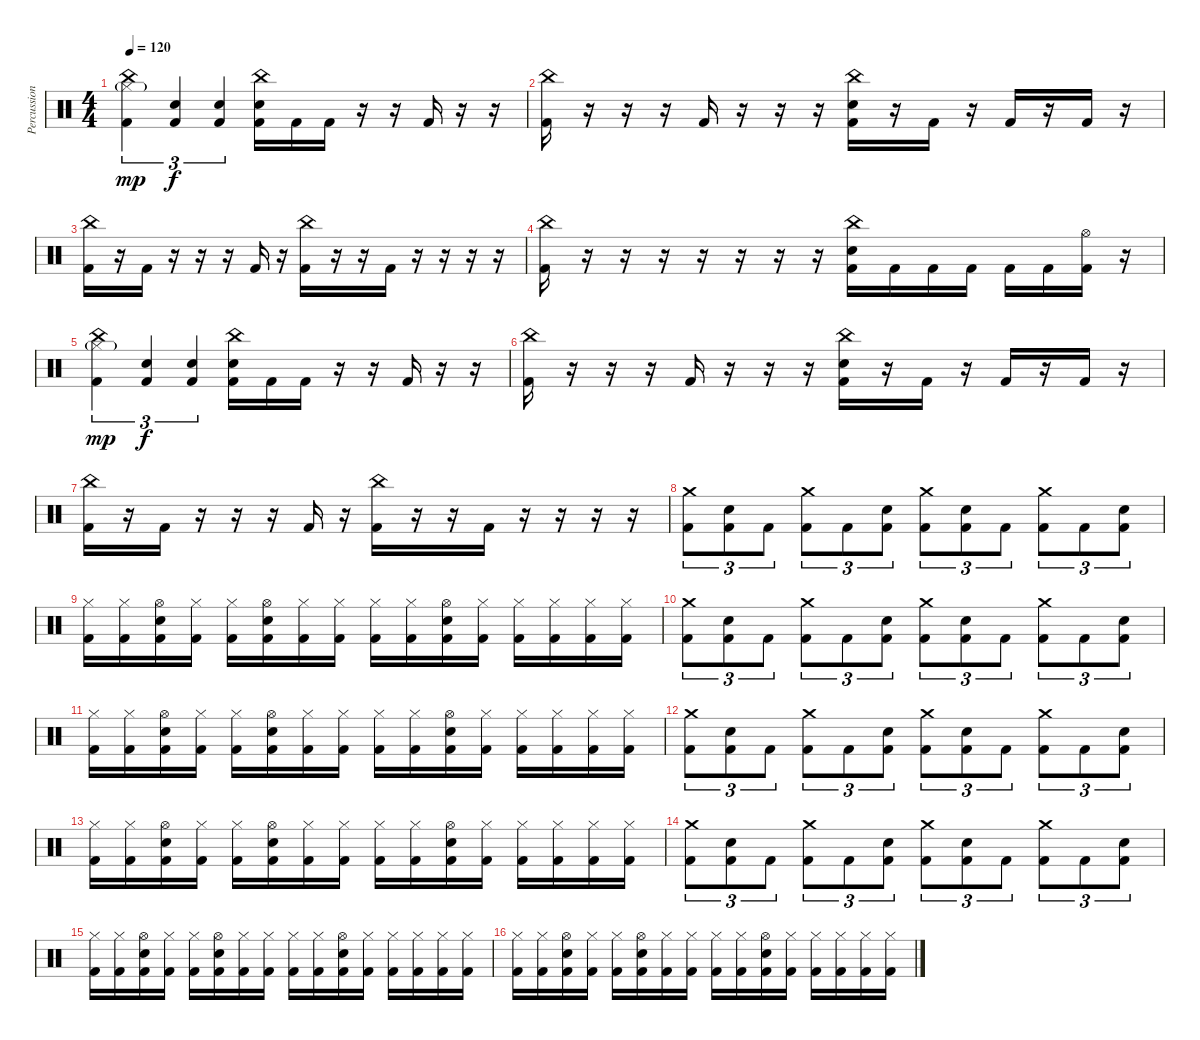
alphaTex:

\track ("Percussion" "Percussion") {instrument percussion}
\staff {score}
\articulation defaults
\ts (4 4)
\tempo 120
\clef neutral
\ks c
("China (hit)" "Hi-Hat (closed)"{g} "Kick (hit) 2").4{tu (3 2) dy mp} ("Electric Snare (hit)" "Kick (hit) 2").4{tu (3 2) dy f} ("Electric Snare (hit)" "Kick (hit) 2").4{tu (3 2)} ("China (hit)" "Electric Snare (hit)" "Kick (hit) 2").16 "Kick (hit) 2".16 "Kick (hit) 2".16 r.16 r.16 "Kick (hit) 2".16 r.16 r.16 |
("China (hit)" "Kick (hit) 2").16 r.16 r.16 r.16 "Kick (hit) 2".16 r.16 r.16 r.16 ("China (hit)" "Electric Snare (hit)" "Kick (hit) 2").16 r.16 "Kick (hit) 2".16 r.16 "Kick (hit) 2".16 r.16 "Kick (hit) 2".16 r.16 |
("China (hit)" "Kick (hit) 2").16 r.16 "Kick (hit) 2".16 r.16 r.16 r.16 "Kick (hit) 2".16 r.16 ("China (hit)" "Kick (hit) 2").16 r.16 r.16 "Kick (hit) 2".16 r.16 r.16 r.16 r.16 |
("China (hit)" "Kick (hit) 2").16 r.16 r.16 r.16 r.16 r.16 r.16 r.16 ("China (hit)" "Electric Snare (hit)" "Kick (hit) 2").16 "Kick (hit) 2".16 "Kick (hit) 2".16 "Kick (hit) 2".16 "Kick (hit) 2".16 "Kick (hit) 2".16 ("Hi-Hat (open)" "Kick (hit) 2").16 r.16 |
("China (hit)" "Hi-Hat (closed)"{g} "Kick (hit) 2").4{tu (3 2) dy mp} ("Electric Snare (hit)" "Kick (hit) 2").4{tu (3 2) dy f} ("Electric Snare (hit)" "Kick (hit) 2").4{tu (3 2)} ("China (hit)" "Electric Snare (hit)" "Kick (hit) 2").16 "Kick (hit) 2".16 "Kick (hit) 2".16 r.16 r.16 "Kick (hit) 2".16 r.16 r.16 |
("China (hit)" "Kick (hit) 2").16 r.16 r.16 r.16 "Kick (hit) 2".16 r.16 r.16 r.16 ("China (hit)" "Electric Snare (hit)" "Kick (hit) 2").16 r.16 "Kick (hit) 2".16 r.16 "Kick (hit) 2".16 r.16 "Kick (hit) 2".16 r.16 |
("China (hit)" "Kick (hit) 2").16 r.16 "Kick (hit) 2".16 r.16 r.16 r.16 "Kick (hit) 2".16 r.16 ("China (hit)" "Kick (hit) 2").16 r.16 r.16 "Kick (hit) 2".16 r.16 r.16 r.16 r.16 |
("Crash medium (hit)" "Kick (hit) 2").8{tu (3 2)} ("Electric Snare (hit)" "Kick (hit) 2").8{tu (3 2)} "Kick (hit) 2".8{tu (3 2)} ("Crash medium (hit)" "Kick (hit) 2").8{tu (3 2)} "Kick (hit) 2".8{tu (3 2)} ("Electric Snare (hit)" "Kick (hit) 2").8{tu (3 2)} ("Crash medium (hit)" "Kick (hit) 2").8{tu (3 2)} ("Electric Snare (hit)" "Kick (hit) 2").8{tu (3 2)} "Kick (hit) 2".8{tu (3 2)} ("Crash medium (hit)" "Kick (hit) 2").8{tu (3 2)} "Kick (hit) 2".8{tu (3 2)} ("Electric Snare (hit)" "Kick (hit) 2").8{tu (3 2)} |
("Hi-Hat (closed)" "Kick (hit) 2").16 ("Hi-Hat (closed)" "Kick (hit) 2").16 ("Hi-Hat (open)" "Electric Snare (hit)" "Kick (hit) 2").16 ("Hi-Hat (closed)" "Kick (hit) 2").16 ("Hi-Hat (closed)" "Kick (hit) 2").16 ("Hi-Hat (open)" "Electric Snare (hit)" "Kick (hit) 2").16 ("Hi-Hat (closed)" "Kick (hit) 2").16 ("Hi-Hat (closed)" "Kick (hit) 2").16 ("Hi-Hat (closed)" "Kick (hit) 2").16 ("Hi-Hat (closed)" "Kick (hit) 2").16 ("Hi-Hat (open)" "Electric Snare (hit)" "Kick (hit) 2").16 ("Hi-Hat (closed)" "Kick (hit) 2").16 ("Hi-Hat (closed)" "Kick (hit) 2").16 ("Hi-Hat (closed)" "Kick (hit) 2").16 ("Hi-Hat (closed)" "Kick (hit) 2").16 ("Hi-Hat (closed)" "Kick (hit) 2").16 |
("Crash medium (hit)" "Kick (hit) 2").8{tu (3 2)} ("Electric Snare (hit)" "Kick (hit) 2").8{tu (3 2)} "Kick (hit) 2".8{tu (3 2)} ("Crash medium (hit)" "Kick (hit) 2").8{tu (3 2)} "Kick (hit) 2".8{tu (3 2)} ("Electric Snare (hit)" "Kick (hit) 2").8{tu (3 2)} ("Crash medium (hit)" "Kick (hit) 2").8{tu (3 2)} ("Electric Snare (hit)" "Kick (hit) 2").8{tu (3 2)} "Kick (hit) 2".8{tu (3 2)} ("Crash medium (hit)" "Kick (hit) 2").8{tu (3 2)} "Kick (hit) 2".8{tu (3 2)} ("Electric Snare (hit)" "Kick (hit) 2").8{tu (3 2)} |
("Hi-Hat (closed)" "Kick (hit) 2").16 ("Hi-Hat (closed)" "Kick (hit) 2").16 ("Hi-Hat (open)" "Electric Snare (hit)" "Kick (hit) 2").16 ("Hi-Hat (closed)" "Kick (hit) 2").16 ("Hi-Hat (closed)" "Kick (hit) 2").16 ("Hi-Hat (open)" "Electric Snare (hit)" "Kick (hit) 2").16 ("Hi-Hat (closed)" "Kick (hit) 2").16 ("Hi-Hat (closed)" "Kick (hit) 2").16 ("Hi-Hat (closed)" "Kick (hit) 2").16 ("Hi-Hat (closed)" "Kick (hit) 2").16 ("Hi-Hat (open)" "Electric Snare (hit)" "Kick (hit) 2").16 ("Hi-Hat (closed)" "Kick (hit) 2").16 ("Hi-Hat (closed)" "Kick (hit) 2").16 ("Hi-Hat (closed)" "Kick (hit) 2").16 ("Hi-Hat (closed)" "Kick (hit) 2").16 ("Hi-Hat (closed)" "Kick (hit) 2").16 |
("Crash medium (hit)" "Kick (hit) 2").8{tu (3 2)} ("Electric Snare (hit)" "Kick (hit) 2").8{tu (3 2)} "Kick (hit) 2".8{tu (3 2)} ("Crash medium (hit)" "Kick (hit) 2").8{tu (3 2)} "Kick (hit) 2".8{tu (3 2)} ("Electric Snare (hit)" "Kick (hit) 2").8{tu (3 2)} ("Crash medium (hit)" "Kick (hit) 2").8{tu (3 2)} ("Electric Snare (hit)" "Kick (hit) 2").8{tu (3 2)} "Kick (hit) 2".8{tu (3 2)} ("Crash medium (hit)" "Kick (hit) 2").8{tu (3 2)} "Kick (hit) 2".8{tu (3 2)} ("Electric Snare (hit)" "Kick (hit) 2").8{tu (3 2)} |
("Hi-Hat (closed)" "Kick (hit) 2").16 ("Hi-Hat (closed)" "Kick (hit) 2").16 ("Hi-Hat (open)" "Electric Snare (hit)" "Kick (hit) 2").16 ("Hi-Hat (closed)" "Kick (hit) 2").16 ("Hi-Hat (closed)" "Kick (hit) 2").16 ("Hi-Hat (open)" "Electric Snare (hit)" "Kick (hit) 2").16 ("Hi-Hat (closed)" "Kick (hit) 2").16 ("Hi-Hat (closed)" "Kick (hit) 2").16 ("Hi-Hat (closed)" "Kick (hit) 2").16 ("Hi-Hat (closed)" "Kick (hit) 2").16 ("Hi-Hat (open)" "Electric Snare (hit)" "Kick (hit) 2").16 ("Hi-Hat (closed)" "Kick (hit) 2").16 ("Hi-Hat (closed)" "Kick (hit) 2").16 ("Hi-Hat (closed)" "Kick (hit) 2").16 ("Hi-Hat (closed)" "Kick (hit) 2").16 ("Hi-Hat (closed)" "Kick (hit) 2").16 |
("Crash medium (hit)" "Kick (hit) 2").8{tu (3 2)} ("Electric Snare (hit)" "Kick (hit) 2").8{tu (3 2)} "Kick (hit) 2".8{tu (3 2)} ("Crash medium (hit)" "Kick (hit) 2").8{tu (3 2)} "Kick (hit) 2".8{tu (3 2)} ("Electric Snare (hit)" "Kick (hit) 2").8{tu (3 2)} ("Crash medium (hit)" "Kick (hit) 2").8{tu (3 2)} ("Electric Snare (hit)" "Kick (hit) 2").8{tu (3 2)} "Kick (hit) 2".8{tu (3 2)} ("Crash medium (hit)" "Kick (hit) 2").8{tu (3 2)} "Kick (hit) 2".8{tu (3 2)} ("Electric Snare (hit)" "Kick (hit) 2").8{tu (3 2)} |
("Hi-Hat (closed)" "Kick (hit) 2").16 ("Hi-Hat (closed)" "Kick (hit) 2").16 ("Hi-Hat (open)" "Electric Snare (hit)" "Kick (hit) 2").16 ("Hi-Hat (closed)" "Kick (hit) 2").16 ("Hi-Hat (closed)" "Kick (hit) 2").16 ("Hi-Hat (open)" "Electric Snare (hit)" "Kick (hit) 2").16 ("Hi-Hat (closed)" "Kick (hit) 2").16 ("Hi-Hat (closed)" "Kick (hit) 2").16 ("Hi-Hat (closed)" "Kick (hit) 2").16 ("Hi-Hat (closed)" "Kick (hit) 2").16 ("Hi-Hat (open)" "Electric Snare (hit)" "Kick (hit) 2").16 ("Hi-Hat (closed)" "Kick (hit) 2").16 ("Hi-Hat (closed)" "Kick (hit) 2").16 ("Hi-Hat (closed)" "Kick (hit) 2").16 ("Hi-Hat (closed)" "Kick (hit) 2").16 ("Hi-Hat (closed)" "Kick (hit) 2").16 |
("Hi-Hat (closed)" "Kick (hit) 2").16 ("Hi-Hat (closed)" "Kick (hit) 2").16 ("Hi-Hat (open)" "Electric Snare (hit)" "Kick (hit) 2").16 ("Hi-Hat (closed)" "Kick (hit) 2").16 ("Hi-Hat (closed)" "Kick (hit) 2").16 ("Hi-Hat (open)" "Electric Snare (hit)" "Kick (hit) 2").16 ("Hi-Hat (closed)" "Kick (hit) 2").16 ("Hi-Hat (closed)" "Kick (hit) 2").16 ("Hi-Hat (closed)" "Kick (hit) 2").16 ("Hi-Hat (closed)" "Kick (hit) 2").16 ("Hi-Hat (open)" "Electric Snare (hit)" "Kick (hit) 2").16 ("Hi-Hat (closed)" "Kick (hit) 2").16 ("Hi-Hat (closed)" "Kick (hit) 2").16 ("Hi-Hat (closed)" "Kick (hit) 2").16 ("Hi-Hat (closed)" "Kick (hit) 2").16 ("Hi-Hat (closed)" "Kick (hit) 2").16
